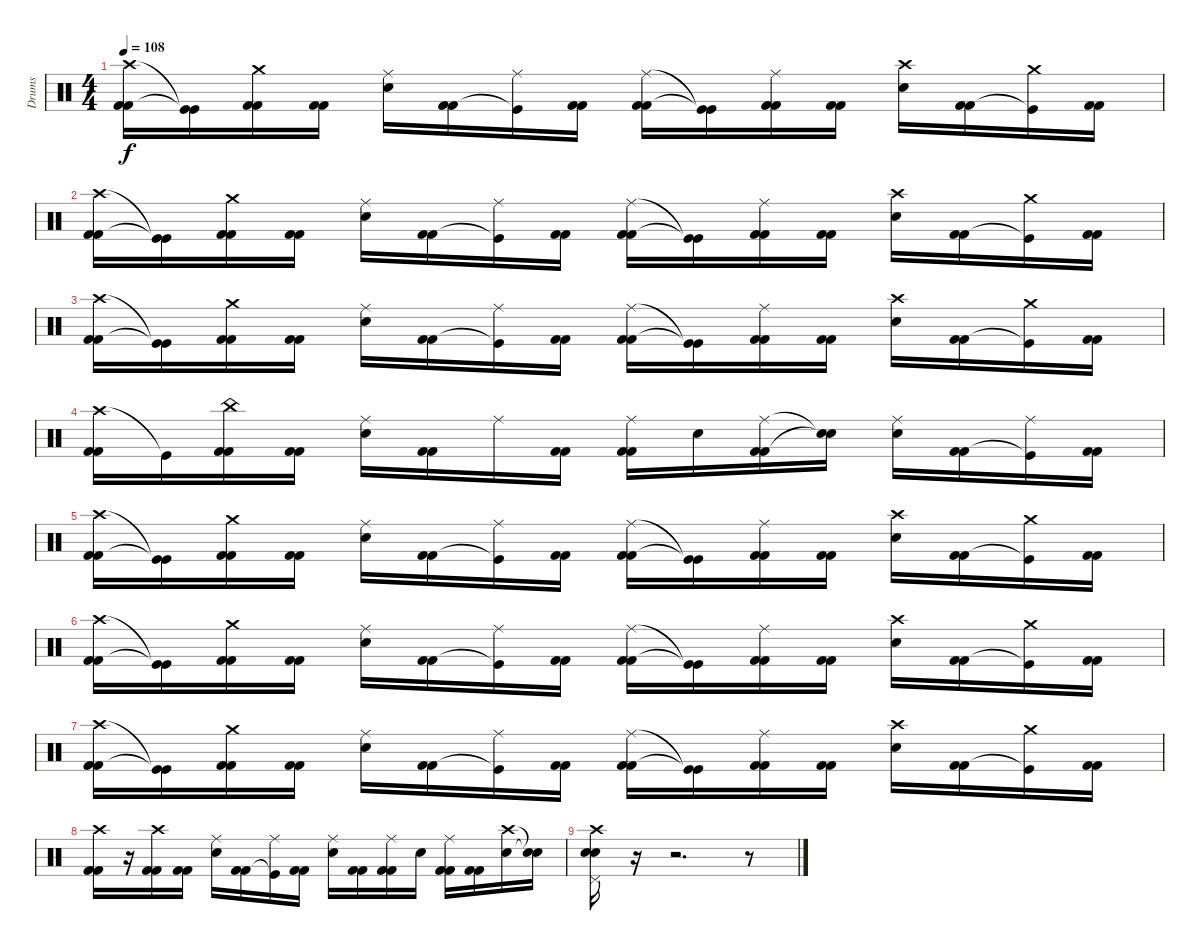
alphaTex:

\track ("Drums" "Drums") {instrument percussion}
\staff {score}
\articulation defaults
\ts (4 4)
\tempo 108
\clef neutral
\ks c
("Crash high (hit)" "Kick (hit) 2" "Kick (hit) 2").16{dy f} ("Kick (hit)"{t} "Kick (hit)"{t}).16 ("Crash medium (hit)" "Kick (hit) 2" "Kick (hit) 2").16 ("Kick (hit) 2" "Kick (hit) 2").16 ("Ride (middle)" "Electric Snare (hit)").16 ("Kick (hit) 2" "Kick (hit) 2").16 ("Ride (middle)" "Kick (hit)"{t}).16 ("Kick (hit) 2" "Kick (hit) 2").16 ("Ride (middle)" "Kick (hit) 2" "Kick (hit) 2").16 ("Kick (hit)"{t} "Kick (hit)"{t}).16 ("Ride (middle)" "Kick (hit) 2" "Kick (hit) 2").16 ("Kick (hit) 2" "Kick (hit) 2").16 ("Crash high (hit)" "Electric Snare (hit)").16 ("Kick (hit) 2" "Kick (hit) 2").16 ("Crash medium (hit)" "Kick (hit)"{t}).16 ("Kick (hit) 2" "Kick (hit) 2").16 |
("Crash high (hit)" "Kick (hit) 2" "Kick (hit) 2").16 ("Kick (hit)"{t} "Kick (hit)"{t}).16 ("Crash medium (hit)" "Kick (hit) 2" "Kick (hit) 2").16 ("Kick (hit) 2" "Kick (hit) 2").16 ("Ride (middle)" "Electric Snare (hit)").16 ("Kick (hit) 2" "Kick (hit) 2").16 ("Ride (middle)" "Kick (hit)"{t}).16 ("Kick (hit) 2" "Kick (hit) 2").16 ("Ride (middle)" "Kick (hit) 2" "Kick (hit) 2").16 ("Kick (hit)"{t} "Kick (hit)"{t}).16 ("Ride (middle)" "Kick (hit) 2" "Kick (hit) 2").16 ("Kick (hit) 2" "Kick (hit) 2").16 ("Crash high (hit)" "Electric Snare (hit)").16 ("Kick (hit) 2" "Kick (hit) 2").16 ("Crash medium (hit)" "Kick (hit)"{t}).16 ("Kick (hit) 2" "Kick (hit) 2").16 |
("Crash high (hit)" "Kick (hit) 2" "Kick (hit) 2").16 ("Kick (hit)"{t} "Kick (hit)"{t}).16 ("Crash medium (hit)" "Kick (hit) 2" "Kick (hit) 2").16 ("Kick (hit) 2" "Kick (hit) 2").16 ("Ride (middle)" "Electric Snare (hit)").16 ("Kick (hit) 2" "Kick (hit) 2").16 ("Ride (middle)" "Kick (hit)"{t}).16 ("Kick (hit) 2" "Kick (hit) 2").16 ("Ride (middle)" "Kick (hit) 2" "Kick (hit) 2").16 ("Kick (hit)"{t} "Kick (hit)"{t}).16 ("Ride (middle)" "Kick (hit) 2" "Kick (hit) 2").16 ("Kick (hit) 2" "Kick (hit) 2").16 ("Crash high (hit)" "Electric Snare (hit)").16 ("Kick (hit) 2" "Kick (hit) 2").16 ("Crash medium (hit)" "Kick (hit)"{t}).16 ("Kick (hit) 2" "Kick (hit) 2").16 |
("Crash high (hit)" "Kick (hit) 2" "Kick (hit) 2").16 "Kick (hit)"{t}.16 ("China (hit)" "Kick (hit) 2" "Kick (hit) 2").16 ("Kick (hit) 2" "Kick (hit) 2").16 ("Ride (middle)" "Electric Snare (hit)").16 ("Kick (hit) 2" "Kick (hit) 2").16 "Ride (middle)".16 ("Kick (hit) 2" "Kick (hit) 2").16 ("Ride (middle)" "Kick (hit) 2" "Kick (hit) 2").16 "Electric Snare (hit)".16 ("Ride (middle)" "Kick (hit) 2" "Kick (hit) 2").16 ("Snare (hit) 2"{t} "Snare (hit) 2"{t}).16 ("Ride (middle)" "Electric Snare (hit)").16 ("Kick (hit) 2" "Kick (hit) 2").16 ("Ride (middle)" "Kick (hit)"{t}).16 ("Kick (hit) 2" "Kick (hit) 2").16 |
("Crash high (hit)" "Kick (hit) 2" "Kick (hit) 2").16 ("Kick (hit)"{t} "Kick (hit)"{t}).16 ("Crash medium (hit)" "Kick (hit) 2" "Kick (hit) 2").16 ("Kick (hit) 2" "Kick (hit) 2").16 ("Ride (middle)" "Electric Snare (hit)").16 ("Kick (hit) 2" "Kick (hit) 2").16 ("Ride (middle)" "Kick (hit)"{t}).16 ("Kick (hit) 2" "Kick (hit) 2").16 ("Ride (middle)" "Kick (hit) 2" "Kick (hit) 2").16 ("Kick (hit)"{t} "Kick (hit)"{t}).16 ("Ride (middle)" "Kick (hit) 2" "Kick (hit) 2").16 ("Kick (hit) 2" "Kick (hit) 2").16 ("Crash high (hit)" "Electric Snare (hit)").16 ("Kick (hit) 2" "Kick (hit) 2").16 ("Crash medium (hit)" "Kick (hit)"{t}).16 ("Kick (hit) 2" "Kick (hit) 2").16 |
("Crash high (hit)" "Kick (hit) 2" "Kick (hit) 2").16 ("Kick (hit)"{t} "Kick (hit)"{t}).16 ("Crash medium (hit)" "Kick (hit) 2" "Kick (hit) 2").16 ("Kick (hit) 2" "Kick (hit) 2").16 ("Ride (middle)" "Electric Snare (hit)").16 ("Kick (hit) 2" "Kick (hit) 2").16 ("Ride (middle)" "Kick (hit)"{t}).16 ("Kick (hit) 2" "Kick (hit) 2").16 ("Ride (middle)" "Kick (hit) 2" "Kick (hit) 2").16 ("Kick (hit)"{t} "Kick (hit)"{t}).16 ("Ride (middle)" "Kick (hit) 2" "Kick (hit) 2").16 ("Kick (hit) 2" "Kick (hit) 2").16 ("Crash high (hit)" "Electric Snare (hit)").16 ("Kick (hit) 2" "Kick (hit) 2").16 ("Crash medium (hit)" "Kick (hit)"{t}).16 ("Kick (hit) 2" "Kick (hit) 2").16 |
("Crash high (hit)" "Kick (hit) 2" "Kick (hit) 2").16 ("Kick (hit)"{t} "Kick (hit)"{t}).16 ("Crash medium (hit)" "Kick (hit) 2" "Kick (hit) 2").16 ("Kick (hit) 2" "Kick (hit) 2").16 ("Ride (middle)" "Electric Snare (hit)").16 ("Kick (hit) 2" "Kick (hit) 2").16 ("Ride (middle)" "Kick (hit)"{t}).16 ("Kick (hit) 2" "Kick (hit) 2").16 ("Ride (middle)" "Kick (hit) 2" "Kick (hit) 2").16 ("Kick (hit)"{t} "Kick (hit)"{t}).16 ("Ride (middle)" "Kick (hit) 2" "Kick (hit) 2").16 ("Kick (hit) 2" "Kick (hit) 2").16 ("Crash high (hit)" "Electric Snare (hit)").16 ("Kick (hit) 2" "Kick (hit) 2").16 ("Crash medium (hit)" "Kick (hit)"{t}).16 ("Kick (hit) 2" "Kick (hit) 2").16 |
("Crash high (hit)" "Kick (hit) 2" "Kick (hit) 2").16 r.16 ("Crash high (hit)" "Kick (hit) 2" "Kick (hit) 2").16 ("Kick (hit) 2" "Kick (hit) 2").16 ("Ride (middle)" "Electric Snare (hit)").16 ("Kick (hit) 2" "Kick (hit) 2").16 ("Ride (middle)" "Kick (hit)"{t}).16 ("Kick (hit) 2" "Kick (hit) 2").16 ("Ride (middle)" "Electric Snare (hit)").16 ("Kick (hit) 2" "Kick (hit) 2").16 ("Ride (middle)" "Kick (hit) 2" "Kick (hit) 2").16 "Electric Snare (hit)".16 ("Ride (middle)" "Kick (hit) 2" "Kick (hit) 2").16 ("Kick (hit) 2" "Kick (hit) 2").16 ("Crash high (hit)" "Electric Snare (hit)").16 ("Snare (hit) 2"{t} "Snare (hit) 2"{t}).16 |
("Crash high (hit)" "Pedal Hi-Hat (hit)" "Snare (hit) 2" "Snare (hit) 2").16 r.16 r.2{d} r.8
